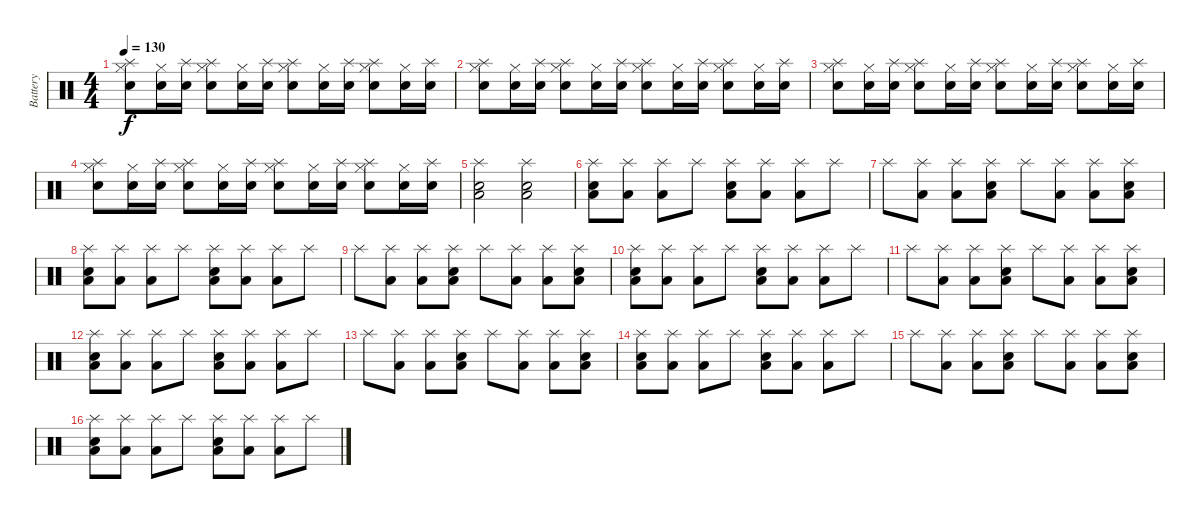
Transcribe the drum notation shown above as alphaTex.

\track ("Battery" "Battery") {instrument percussion}
\staff {score}
\articulation defaults
\ts (4 4)
\tempo 130
\clef neutral
\ks c
("Snare (hit) 2" "Splash (hit)" "Hi-Hat (closed)").8{dy f} ("Snare (hit) 2" "Hi-Hat (closed)").16 ("Snare (hit) 2" "Splash (hit)").16 ("Snare (hit) 2" "Splash (hit)" "Hi-Hat (closed)").8 ("Snare (hit) 2" "Hi-Hat (closed)").16 ("Snare (hit) 2" "Splash (hit)").16 ("Snare (hit) 2" "Splash (hit)" "Hi-Hat (closed)").8 ("Snare (hit) 2" "Hi-Hat (closed)").16 ("Snare (hit) 2" "Splash (hit)").16 ("Snare (hit) 2" "Splash (hit)" "Hi-Hat (closed)").8 ("Snare (hit) 2" "Hi-Hat (closed)").16 ("Snare (hit) 2" "Splash (hit)").16 |
("Snare (hit) 2" "Splash (hit)" "Hi-Hat (closed)").8 ("Snare (hit) 2" "Hi-Hat (closed)").16 ("Snare (hit) 2" "Splash (hit)").16 ("Snare (hit) 2" "Splash (hit)" "Hi-Hat (closed)").8 ("Snare (hit) 2" "Hi-Hat (closed)").16 ("Snare (hit) 2" "Splash (hit)").16 ("Snare (hit) 2" "Splash (hit)" "Hi-Hat (closed)").8 ("Snare (hit) 2" "Hi-Hat (closed)").16 ("Snare (hit) 2" "Splash (hit)").16 ("Snare (hit) 2" "Splash (hit)" "Hi-Hat (closed)").8 ("Snare (hit) 2" "Hi-Hat (closed)").16 ("Snare (hit) 2" "Splash (hit)").16 |
("Snare (hit) 2" "Splash (hit)" "Hi-Hat (closed)").8 ("Snare (hit) 2" "Hi-Hat (closed)").16 ("Snare (hit) 2" "Splash (hit)").16 ("Snare (hit) 2" "Splash (hit)" "Hi-Hat (closed)").8 ("Snare (hit) 2" "Hi-Hat (closed)").16 ("Snare (hit) 2" "Splash (hit)").16 ("Snare (hit) 2" "Splash (hit)" "Hi-Hat (closed)").8 ("Snare (hit) 2" "Hi-Hat (closed)").16 ("Snare (hit) 2" "Splash (hit)").16 ("Snare (hit) 2" "Splash (hit)" "Hi-Hat (closed)").8 ("Snare (hit) 2" "Hi-Hat (closed)").16 ("Snare (hit) 2" "Splash (hit)").16 |
("Snare (hit) 2" "Splash (hit)" "Hi-Hat (closed)").8 ("Snare (hit) 2" "Hi-Hat (closed)").16 ("Snare (hit) 2" "Splash (hit)").16 ("Snare (hit) 2" "Splash (hit)" "Hi-Hat (closed)").8 ("Snare (hit) 2" "Hi-Hat (closed)").16 ("Snare (hit) 2" "Splash (hit)").16 ("Snare (hit) 2" "Splash (hit)" "Hi-Hat (closed)").8 ("Snare (hit) 2" "Hi-Hat (closed)").16 ("Snare (hit) 2" "Splash (hit)").16 ("Snare (hit) 2" "Splash (hit)" "Hi-Hat (closed)").8 ("Snare (hit) 2" "Hi-Hat (closed)").16 ("Snare (hit) 2" "Splash (hit)").16 |
("Low Floor Tom (hit)" "Electric Snare (hit)" "Splash (hit)").2 ("Low Floor Tom (hit)" "Electric Snare (hit)" "Splash (hit)").2 |
("Splash (hit)" "Low Floor Tom (hit)" "Electric Snare (hit)").8 ("Splash (hit)" "Low Floor Tom (hit)").8 ("Splash (hit)" "Low Floor Tom (hit)").8 "Splash (hit)".8 ("Splash (hit)" "Low Floor Tom (hit)" "Electric Snare (hit)").8 ("Splash (hit)" "Low Floor Tom (hit)").8 ("Splash (hit)" "Low Floor Tom (hit)").8 "Splash (hit)".8 |
"Splash (hit)".8 ("Splash (hit)" "Low Floor Tom (hit)").8 ("Splash (hit)" "Low Floor Tom (hit)").8 ("Splash (hit)" "Low Floor Tom (hit)" "Electric Snare (hit)").8 "Splash (hit)".8 ("Splash (hit)" "Low Floor Tom (hit)").8 ("Splash (hit)" "Low Floor Tom (hit)").8 ("Splash (hit)" "Low Floor Tom (hit)" "Electric Snare (hit)").8 |
("Splash (hit)" "Low Floor Tom (hit)" "Electric Snare (hit)").8 ("Splash (hit)" "Low Floor Tom (hit)").8 ("Splash (hit)" "Low Floor Tom (hit)").8 "Splash (hit)".8 ("Splash (hit)" "Low Floor Tom (hit)" "Electric Snare (hit)").8 ("Splash (hit)" "Low Floor Tom (hit)").8 ("Splash (hit)" "Low Floor Tom (hit)").8 "Splash (hit)".8 |
"Splash (hit)".8 ("Splash (hit)" "Low Floor Tom (hit)").8 ("Splash (hit)" "Low Floor Tom (hit)").8 ("Splash (hit)" "Low Floor Tom (hit)" "Electric Snare (hit)").8 "Splash (hit)".8 ("Splash (hit)" "Low Floor Tom (hit)").8 ("Splash (hit)" "Low Floor Tom (hit)").8 ("Splash (hit)" "Low Floor Tom (hit)" "Electric Snare (hit)").8 |
("Splash (hit)" "Low Floor Tom (hit)" "Electric Snare (hit)").8 ("Splash (hit)" "Low Floor Tom (hit)").8 ("Splash (hit)" "Low Floor Tom (hit)").8 "Splash (hit)".8 ("Splash (hit)" "Low Floor Tom (hit)" "Electric Snare (hit)").8 ("Splash (hit)" "Low Floor Tom (hit)").8 ("Splash (hit)" "Low Floor Tom (hit)").8 "Splash (hit)".8 |
"Splash (hit)".8 ("Splash (hit)" "Low Floor Tom (hit)").8 ("Splash (hit)" "Low Floor Tom (hit)").8 ("Splash (hit)" "Low Floor Tom (hit)" "Electric Snare (hit)").8 "Splash (hit)".8 ("Splash (hit)" "Low Floor Tom (hit)").8 ("Splash (hit)" "Low Floor Tom (hit)").8 ("Splash (hit)" "Low Floor Tom (hit)" "Electric Snare (hit)").8 |
("Splash (hit)" "Low Floor Tom (hit)" "Electric Snare (hit)").8 ("Splash (hit)" "Low Floor Tom (hit)").8 ("Splash (hit)" "Low Floor Tom (hit)").8 "Splash (hit)".8 ("Splash (hit)" "Low Floor Tom (hit)" "Electric Snare (hit)").8 ("Splash (hit)" "Low Floor Tom (hit)").8 ("Splash (hit)" "Low Floor Tom (hit)").8 "Splash (hit)".8 |
"Splash (hit)".8 ("Splash (hit)" "Low Floor Tom (hit)").8 ("Splash (hit)" "Low Floor Tom (hit)").8 ("Splash (hit)" "Low Floor Tom (hit)" "Electric Snare (hit)").8 "Splash (hit)".8 ("Splash (hit)" "Low Floor Tom (hit)").8 ("Splash (hit)" "Low Floor Tom (hit)").8 ("Splash (hit)" "Low Floor Tom (hit)" "Electric Snare (hit)").8 |
("Splash (hit)" "Low Floor Tom (hit)" "Electric Snare (hit)").8 ("Splash (hit)" "Low Floor Tom (hit)").8 ("Splash (hit)" "Low Floor Tom (hit)").8 "Splash (hit)".8 ("Splash (hit)" "Low Floor Tom (hit)" "Electric Snare (hit)").8 ("Splash (hit)" "Low Floor Tom (hit)").8 ("Splash (hit)" "Low Floor Tom (hit)").8 "Splash (hit)".8 |
"Splash (hit)".8 ("Splash (hit)" "Low Floor Tom (hit)").8 ("Splash (hit)" "Low Floor Tom (hit)").8 ("Splash (hit)" "Low Floor Tom (hit)" "Electric Snare (hit)").8 "Splash (hit)".8 ("Splash (hit)" "Low Floor Tom (hit)").8 ("Splash (hit)" "Low Floor Tom (hit)").8 ("Splash (hit)" "Low Floor Tom (hit)" "Electric Snare (hit)").8 |
("Splash (hit)" "Low Floor Tom (hit)" "Electric Snare (hit)").8 ("Splash (hit)" "Low Floor Tom (hit)").8 ("Splash (hit)" "Low Floor Tom (hit)").8 "Splash (hit)".8 ("Splash (hit)" "Low Floor Tom (hit)" "Electric Snare (hit)").8 ("Splash (hit)" "Low Floor Tom (hit)").8 ("Splash (hit)" "Low Floor Tom (hit)").8 "Splash (hit)".8
